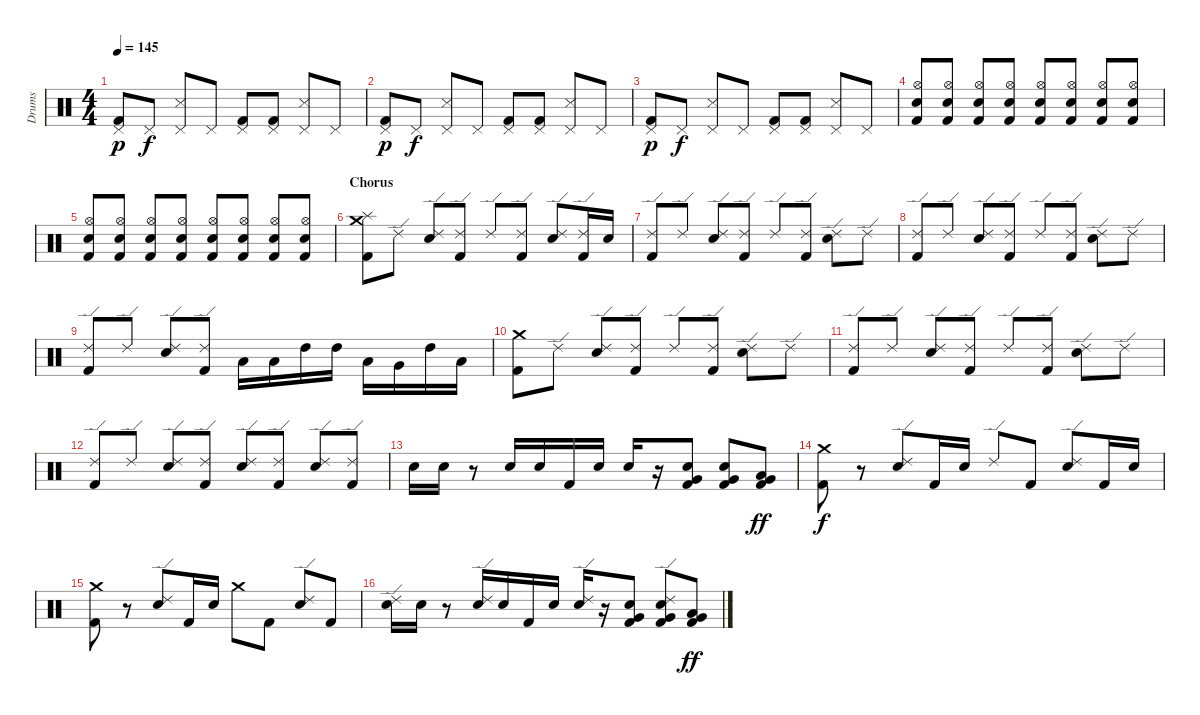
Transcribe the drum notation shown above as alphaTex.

\track ("Drums" "Drums") {instrument percussion}
\staff {score}
\articulation defaults
\ts (4 4)
\tempo 145
\clef neutral
\ks c
("Pedal Hi-Hat (hit)" "Kick (hit) 2").8{dy p} "Pedal Hi-Hat (hit)".8{dy f} ("Pedal Hi-Hat (hit)" "Snare (side stick) 3").8 "Pedal Hi-Hat (hit)".8 ("Pedal Hi-Hat (hit)" "Kick (hit) 2").8 ("Pedal Hi-Hat (hit)" "Kick (hit) 2").8 ("Pedal Hi-Hat (hit)" "Snare (side stick) 3").8 "Pedal Hi-Hat (hit)".8 |
("Pedal Hi-Hat (hit)" "Kick (hit) 2").8{dy p} "Pedal Hi-Hat (hit)".8{dy f} ("Pedal Hi-Hat (hit)" "Snare (side stick) 3").8 "Pedal Hi-Hat (hit)".8 ("Pedal Hi-Hat (hit)" "Kick (hit) 2").8 ("Pedal Hi-Hat (hit)" "Kick (hit) 2").8 ("Pedal Hi-Hat (hit)" "Snare (side stick) 3").8 "Pedal Hi-Hat (hit)".8 |
("Pedal Hi-Hat (hit)" "Kick (hit) 2").8{dy p} "Pedal Hi-Hat (hit)".8{dy f} ("Pedal Hi-Hat (hit)" "Snare (side stick) 3").8 "Pedal Hi-Hat (hit)".8 ("Pedal Hi-Hat (hit)" "Kick (hit) 2").8 ("Pedal Hi-Hat (hit)" "Kick (hit) 2").8 ("Pedal Hi-Hat (hit)" "Snare (side stick) 3").8 "Pedal Hi-Hat (hit)".8 |
("Hi-Hat (open)" "Electric Snare (hit)" "Kick (hit) 2").8{volume 6} ("Hi-Hat (open)" "Electric Snare (hit)" "Kick (hit) 2").8{volume 13} ("Hi-Hat (open)" "Electric Snare (hit)" "Kick (hit) 2").8 ("Hi-Hat (open)" "Electric Snare (hit)" "Kick (hit) 2").8 ("Hi-Hat (open)" "Electric Snare (hit)" "Kick (hit) 2").8 ("Hi-Hat (open)" "Electric Snare (hit)" "Kick (hit) 2").8 ("Hi-Hat (open)" "Electric Snare (hit)" "Kick (hit) 2").8 ("Hi-Hat (open)" "Electric Snare (hit)" "Kick (hit) 2").8 |
("Hi-Hat (open)" "Electric Snare (hit)" "Kick (hit) 2").8 ("Hi-Hat (open)" "Electric Snare (hit)" "Kick (hit) 2").8 ("Hi-Hat (open)" "Electric Snare (hit)" "Kick (hit) 2").8 ("Hi-Hat (open)" "Electric Snare (hit)" "Kick (hit) 2").8 ("Hi-Hat (open)" "Electric Snare (hit)" "Kick (hit) 2").8 ("Hi-Hat (open)" "Electric Snare (hit)" "Kick (hit) 2").8 ("Hi-Hat (open)" "Electric Snare (hit)" "Kick (hit) 2").8 ("Hi-Hat (open)" "Electric Snare (hit)" "Kick (hit) 2").8 |
\section ("" "Chorus")
("Crash medium (hit)" "Splash (hit)" "Kick (hit) 2").8 "Ride (edge) 2".8 ("Ride (edge) 2" "Electric Snare (hit)").8 ("Ride (edge) 2" "Kick (hit) 2").8 "Ride (edge) 2".8 ("Ride (edge) 2" "Kick (hit) 2").8 ("Ride (edge) 2" "Electric Snare (hit)").8 ("Ride (edge) 2" "Kick (hit) 2").16 "Electric Snare (hit)".16 |
("Ride (edge) 2" "Kick (hit) 2").8 "Ride (edge) 2".8 ("Ride (edge) 2" "Electric Snare (hit)").8 ("Ride (edge) 2" "Kick (hit) 2").8 "Ride (edge) 2".8 ("Ride (edge) 2" "Kick (hit) 2").8 ("Ride (edge) 2" "Electric Snare (hit)").8 "Ride (edge) 2".8 |
("Ride (edge) 2" "Kick (hit) 2").8 "Ride (edge) 2".8 ("Ride (edge) 2" "Electric Snare (hit)").8 ("Ride (edge) 2" "Kick (hit) 2").8 "Ride (edge) 2".8 ("Ride (edge) 2" "Kick (hit) 2").8 ("Ride (edge) 2" "Electric Snare (hit)").8 "Ride (edge) 2".8 |
("Ride (edge) 2" "Kick (hit) 2").8 "Ride (edge) 2".8 ("Ride (edge) 2" "Electric Snare (hit)").8 ("Ride (edge) 2" "Kick (hit) 2").8 "Low Tom (hit)".16 "Low Tom (hit)".16 "High Tom (hit)".16 "High Tom (hit)".16 "Low Tom (hit)".16 "Very Low Tom (hit)".16 "High Tom (hit)".16 "Low Tom (hit)".16 |
("Crash medium (hit)" "Kick (hit) 2").8 "Ride (edge) 2".8 ("Ride (edge) 2" "Electric Snare (hit)").8 ("Ride (edge) 2" "Kick (hit) 2").8 "Ride (edge) 2".8 ("Ride (edge) 2" "Kick (hit) 2").8 ("Ride (edge) 2" "Electric Snare (hit)").8 "Ride (edge) 2".8 |
("Ride (edge) 2" "Kick (hit) 2").8 "Ride (edge) 2".8 ("Ride (edge) 2" "Electric Snare (hit)").8 ("Ride (edge) 2" "Kick (hit) 2").8 "Ride (edge) 2".8 ("Ride (edge) 2" "Kick (hit) 2").8 ("Ride (edge) 2" "Electric Snare (hit)").8 "Ride (edge) 2".8 |
("Ride (edge) 2" "Kick (hit) 2").8 "Ride (edge) 2".8 ("Ride (edge) 2" "Electric Snare (hit)").8 ("Ride (edge) 2" "Kick (hit) 2").8 ("Ride (edge) 2" "Electric Snare (hit)").8 ("Ride (edge) 2" "Kick (hit) 2").8 ("Ride (edge) 2" "Electric Snare (hit)").8 ("Ride (edge) 2" "Kick (hit) 2").8 |
"Electric Snare (hit)".16 "Electric Snare (hit)".16 r.8 "Electric Snare (hit)".16 "Electric Snare (hit)".16 "Kick (hit) 2".16 "Electric Snare (hit)".16 "Electric Snare (hit)".16 r.16 ("Electric Snare (hit)" "Very Low Tom (hit)" "Kick (hit) 2").8 ("Electric Snare (hit)" "Very Low Tom (hit)" "Kick (hit) 2").8 ("Low Tom (hit)" "Very Low Tom (hit)" "Kick (hit) 2").8{dy ff} |
("Crash medium (hit)" "Kick (hit) 2").8{dy f} r.8 ("Ride (edge) 2" "Electric Snare (hit)").8 "Kick (hit) 2".16 "Electric Snare (hit)".16 "Ride (edge) 2".8 "Kick (hit) 2".8 ("Ride (edge) 2" "Electric Snare (hit)").8 "Kick (hit) 2".16 "Electric Snare (hit)".16 |
("Crash medium (hit)" "Kick (hit) 2").8 r.8 ("Ride (edge) 2" "Electric Snare (hit)").8 "Kick (hit) 2".16 "Electric Snare (hit)".16 "Crash medium (hit)".8 "Kick (hit) 2".8 ("Ride (edge) 2" "Electric Snare (hit)").8 "Kick (hit) 2".8 |
("Ride (edge) 2" "Electric Snare (hit)").16 "Electric Snare (hit)".16 r.8 ("Ride (edge) 2" "Electric Snare (hit)").16 "Electric Snare (hit)".16 "Kick (hit) 2".16 "Electric Snare (hit)".16 ("Ride (edge) 2" "Electric Snare (hit)").16 r.16 ("Electric Snare (hit)" "Very Low Tom (hit)" "Kick (hit) 2").8 ("Ride (edge) 2" "Electric Snare (hit)" "Very Low Tom (hit)" "Kick (hit) 2").8 ("Low Tom (hit)" "Very Low Tom (hit)" "Kick (hit) 2").8{dy ff}
